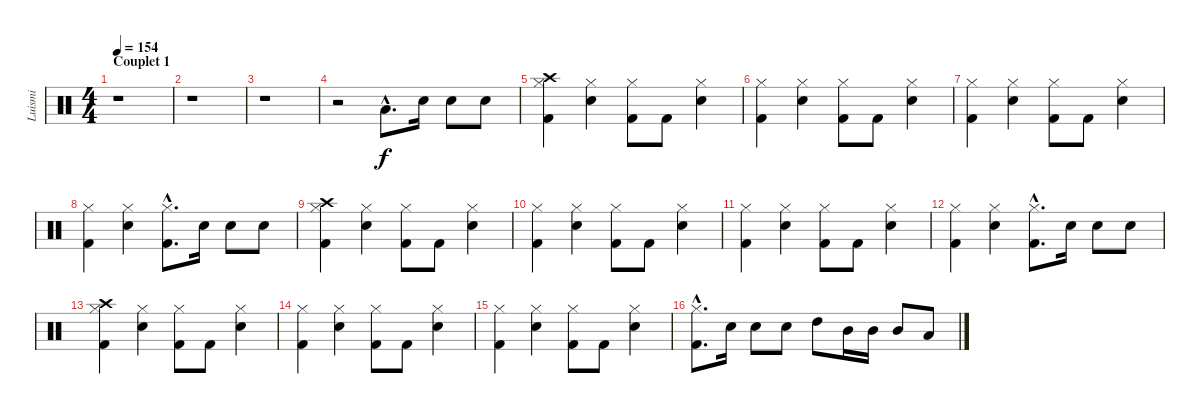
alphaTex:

\track ("Luismi" "Luismi") {instrument percussion}
\staff {score}
\articulation defaults
\ts (4 4)
\section ("" "Couplet 1")
\tempo 154
\clef neutral
\ks c
r.1{dy f} |
r.1 |
r.1 |
r.2 "Low Tom (hit)"{hac}.8{d} "Snare (hit) 2".16 "Snare (hit) 2".8 "Snare (hit) 2".8 |
("Kick (hit) 2" "Hi-Hat (closed)" "Crash high (hit)").4 ("Snare (hit) 2" "Hi-Hat (closed)").4 ("Kick (hit) 2" "Hi-Hat (closed)").8 "Kick (hit) 2".8 ("Snare (hit) 2" "Hi-Hat (closed)").4 |
("Kick (hit) 2" "Hi-Hat (closed)").4 ("Snare (hit) 2" "Hi-Hat (closed)").4 ("Kick (hit) 2" "Hi-Hat (closed)").8 "Kick (hit) 2".8 ("Snare (hit) 2" "Hi-Hat (closed)").4 |
("Kick (hit) 2" "Hi-Hat (closed)").4 ("Snare (hit) 2" "Hi-Hat (closed)").4 ("Kick (hit) 2" "Hi-Hat (closed)").8 "Kick (hit) 2".8 ("Snare (hit) 2" "Hi-Hat (closed)").4 |
("Kick (hit) 2" "Hi-Hat (closed)").4 ("Snare (hit) 2" "Hi-Hat (closed)").4 ("Kick (hit) 2"{hac} "Hi-Hat (closed)"{hac}).8{d} "Snare (hit) 2".16 "Snare (hit) 2".8 "Snare (hit) 2".8 |
("Kick (hit) 2" "Hi-Hat (closed)" "Crash high (hit)").4 ("Snare (hit) 2" "Hi-Hat (closed)").4 ("Kick (hit) 2" "Hi-Hat (closed)").8 "Kick (hit) 2".8 ("Snare (hit) 2" "Hi-Hat (closed)").4 |
("Kick (hit) 2" "Hi-Hat (closed)").4 ("Snare (hit) 2" "Hi-Hat (closed)").4 ("Kick (hit) 2" "Hi-Hat (closed)").8 "Kick (hit) 2".8 ("Snare (hit) 2" "Hi-Hat (closed)").4 |
("Kick (hit) 2" "Hi-Hat (closed)").4 ("Snare (hit) 2" "Hi-Hat (closed)").4 ("Kick (hit) 2" "Hi-Hat (closed)").8 "Kick (hit) 2".8 ("Snare (hit) 2" "Hi-Hat (closed)").4 |
("Kick (hit) 2" "Hi-Hat (closed)").4 ("Snare (hit) 2" "Hi-Hat (closed)").4 ("Kick (hit) 2"{hac} "Hi-Hat (closed)"{hac}).8{d} "Snare (hit) 2".16 "Snare (hit) 2".8 "Snare (hit) 2".8 |
("Kick (hit) 2" "Hi-Hat (closed)" "Crash high (hit)").4 ("Snare (hit) 2" "Hi-Hat (closed)").4 ("Kick (hit) 2" "Hi-Hat (closed)").8 "Kick (hit) 2".8 ("Snare (hit) 2" "Hi-Hat (closed)").4 |
("Kick (hit) 2" "Hi-Hat (closed)").4 ("Snare (hit) 2" "Hi-Hat (closed)").4 ("Kick (hit) 2" "Hi-Hat (closed)").8 "Kick (hit) 2".8 ("Snare (hit) 2" "Hi-Hat (closed)").4 |
("Kick (hit) 2" "Hi-Hat (closed)").4 ("Snare (hit) 2" "Hi-Hat (closed)").4 ("Kick (hit) 2" "Hi-Hat (closed)").8 "Kick (hit) 2".8 ("Snare (hit) 2" "Hi-Hat (closed)").4 |
("Kick (hit) 2"{hac} "Hi-Hat (closed)"{hac}).8{d} "Snare (hit) 2".16 "Snare (hit) 2".8 "Snare (hit) 2".8 "High Tom (hit)".8 "Mid Tom (hit)".16 "Mid Tom (hit)".16 "Mid Tom (hit)".8 "Low Tom (hit)".8
